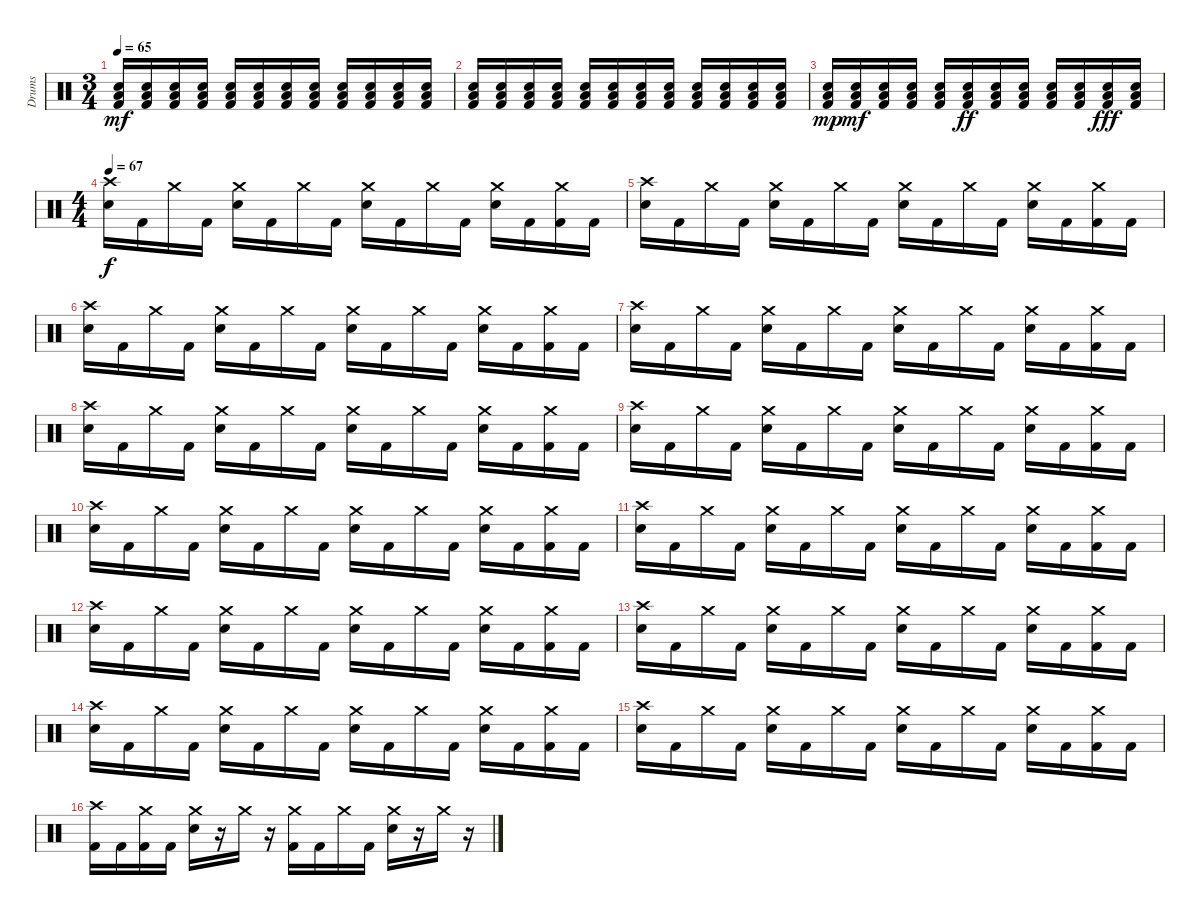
\track ("Drums" "Drums") {instrument percussion}
\staff {score}
\articulation defaults
\ts (3 4)
\tempo 65
\clef neutral
\ks c
("Kick (hit) 2" "Electric Snare (hit)" "Low Tom (hit)").16{dy mf} ("Kick (hit) 2" "Electric Snare (hit)" "Low Tom (hit)").16 ("Kick (hit) 2" "Electric Snare (hit)" "Low Tom (hit)").16 ("Kick (hit) 2" "Electric Snare (hit)" "Low Tom (hit)").16 ("Kick (hit) 2" "Electric Snare (hit)" "Low Tom (hit)").16 ("Kick (hit) 2" "Electric Snare (hit)" "Low Tom (hit)").16 ("Kick (hit) 2" "Electric Snare (hit)" "Low Tom (hit)").16 ("Kick (hit) 2" "Electric Snare (hit)" "Low Tom (hit)").16 ("Kick (hit) 2" "Electric Snare (hit)" "Low Tom (hit)").16 ("Kick (hit) 2" "Electric Snare (hit)" "Low Tom (hit)").16 ("Kick (hit) 2" "Electric Snare (hit)" "Low Tom (hit)").16 ("Kick (hit) 2" "Electric Snare (hit)" "Low Tom (hit)").16 |
("Kick (hit) 2" "Electric Snare (hit)" "Low Tom (hit)").16 ("Kick (hit) 2" "Electric Snare (hit)" "Low Tom (hit)").16 ("Kick (hit) 2" "Electric Snare (hit)" "Low Tom (hit)").16 ("Kick (hit) 2" "Electric Snare (hit)" "Low Tom (hit)").16 ("Kick (hit) 2" "Electric Snare (hit)" "Low Tom (hit)").16 ("Kick (hit) 2" "Electric Snare (hit)" "Low Tom (hit)").16 ("Kick (hit) 2" "Electric Snare (hit)" "Low Tom (hit)").16 ("Kick (hit) 2" "Electric Snare (hit)" "Low Tom (hit)").16 ("Kick (hit) 2" "Electric Snare (hit)" "Low Tom (hit)").16 ("Kick (hit) 2" "Electric Snare (hit)" "Low Tom (hit)").16 ("Kick (hit) 2" "Electric Snare (hit)" "Low Tom (hit)").16 ("Kick (hit) 2" "Electric Snare (hit)" "Low Tom (hit)").16 |
("Kick (hit) 2" "Electric Snare (hit)" "Low Tom (hit)").16{dy mp} ("Kick (hit) 2" "Electric Snare (hit)" "Low Tom (hit)").16{dy mf} ("Kick (hit) 2" "Electric Snare (hit)" "Low Tom (hit)").16 ("Kick (hit) 2" "Electric Snare (hit)" "Low Tom (hit)").16 ("Kick (hit) 2" "Electric Snare (hit)" "Low Tom (hit)").16 ("Kick (hit) 2" "Electric Snare (hit)" "Low Tom (hit)").16{dy ff} ("Kick (hit) 2" "Electric Snare (hit)" "Low Tom (hit)").16 ("Kick (hit) 2" "Electric Snare (hit)" "Low Tom (hit)").16 ("Kick (hit) 2" "Electric Snare (hit)" "Low Tom (hit)").16 ("Kick (hit) 2" "Electric Snare (hit)" "Low Tom (hit)").16 ("Kick (hit) 2" "Electric Snare (hit)" "Low Tom (hit)").16{dy fff} ("Kick (hit) 2" "Electric Snare (hit)" "Low Tom (hit)").16 |
\ts (4 4)
\tempo 67
("Crash high (hit)" "Electric Snare (hit)").16{dy f} "Kick (hit) 2".16 "Crash medium (hit)".16 "Kick (hit) 2".16 ("Crash medium (hit)" "Electric Snare (hit)").16 "Kick (hit) 2".16 "Crash medium (hit)".16 "Kick (hit) 2".16 ("Crash medium (hit)" "Electric Snare (hit)").16 "Kick (hit) 2".16 "Crash medium (hit)".16 "Kick (hit) 2".16 ("Crash medium (hit)" "Electric Snare (hit)").16 "Kick (hit) 2".16 ("Crash medium (hit)" "Kick (hit) 2").16 "Kick (hit) 2".16 |
("Crash high (hit)" "Electric Snare (hit)").16 "Kick (hit) 2".16 "Crash medium (hit)".16 "Kick (hit) 2".16 ("Crash medium (hit)" "Electric Snare (hit)").16 "Kick (hit) 2".16 "Crash medium (hit)".16 "Kick (hit) 2".16 ("Crash medium (hit)" "Electric Snare (hit)").16 "Kick (hit) 2".16 "Crash medium (hit)".16 "Kick (hit) 2".16 ("Crash medium (hit)" "Electric Snare (hit)").16 "Kick (hit) 2".16 ("Crash medium (hit)" "Kick (hit) 2").16 "Kick (hit) 2".16 |
("Crash high (hit)" "Electric Snare (hit)").16 "Kick (hit) 2".16 "Crash medium (hit)".16 "Kick (hit) 2".16 ("Crash medium (hit)" "Electric Snare (hit)").16 "Kick (hit) 2".16 "Crash medium (hit)".16 "Kick (hit) 2".16 ("Crash medium (hit)" "Electric Snare (hit)").16 "Kick (hit) 2".16 "Crash medium (hit)".16 "Kick (hit) 2".16 ("Crash medium (hit)" "Electric Snare (hit)").16 "Kick (hit) 2".16 ("Crash medium (hit)" "Kick (hit) 2").16 "Kick (hit) 2".16 |
("Crash high (hit)" "Electric Snare (hit)").16 "Kick (hit) 2".16 "Crash medium (hit)".16 "Kick (hit) 2".16 ("Crash medium (hit)" "Electric Snare (hit)").16 "Kick (hit) 2".16 "Crash medium (hit)".16 "Kick (hit) 2".16 ("Crash medium (hit)" "Electric Snare (hit)").16 "Kick (hit) 2".16 "Crash medium (hit)".16 "Kick (hit) 2".16 ("Crash medium (hit)" "Electric Snare (hit)").16 "Kick (hit) 2".16 ("Crash medium (hit)" "Kick (hit) 2").16 "Kick (hit) 2".16 |
("Crash high (hit)" "Electric Snare (hit)").16 "Kick (hit) 2".16 "Crash medium (hit)".16 "Kick (hit) 2".16 ("Crash medium (hit)" "Electric Snare (hit)").16 "Kick (hit) 2".16 "Crash medium (hit)".16 "Kick (hit) 2".16 ("Crash medium (hit)" "Electric Snare (hit)").16 "Kick (hit) 2".16 "Crash medium (hit)".16 "Kick (hit) 2".16 ("Crash medium (hit)" "Electric Snare (hit)").16 "Kick (hit) 2".16 ("Crash medium (hit)" "Kick (hit) 2").16 "Kick (hit) 2".16 |
("Crash high (hit)" "Electric Snare (hit)").16 "Kick (hit) 2".16 "Crash medium (hit)".16 "Kick (hit) 2".16 ("Crash medium (hit)" "Electric Snare (hit)").16 "Kick (hit) 2".16 "Crash medium (hit)".16 "Kick (hit) 2".16 ("Crash medium (hit)" "Electric Snare (hit)").16 "Kick (hit) 2".16 "Crash medium (hit)".16 "Kick (hit) 2".16 ("Crash medium (hit)" "Electric Snare (hit)").16 "Kick (hit) 2".16 ("Crash medium (hit)" "Kick (hit) 2").16 "Kick (hit) 2".16 |
("Crash high (hit)" "Electric Snare (hit)").16 "Kick (hit) 2".16 "Crash medium (hit)".16 "Kick (hit) 2".16 ("Crash medium (hit)" "Electric Snare (hit)").16 "Kick (hit) 2".16 "Crash medium (hit)".16 "Kick (hit) 2".16 ("Crash medium (hit)" "Electric Snare (hit)").16 "Kick (hit) 2".16 "Crash medium (hit)".16 "Kick (hit) 2".16 ("Crash medium (hit)" "Electric Snare (hit)").16 "Kick (hit) 2".16 ("Crash medium (hit)" "Kick (hit) 2").16 "Kick (hit) 2".16 |
("Crash high (hit)" "Electric Snare (hit)").16 "Kick (hit) 2".16 "Crash medium (hit)".16 "Kick (hit) 2".16 ("Crash medium (hit)" "Electric Snare (hit)").16 "Kick (hit) 2".16 "Crash medium (hit)".16 "Kick (hit) 2".16 ("Crash medium (hit)" "Electric Snare (hit)").16 "Kick (hit) 2".16 "Crash medium (hit)".16 "Kick (hit) 2".16 ("Crash medium (hit)" "Electric Snare (hit)").16 "Kick (hit) 2".16 ("Crash medium (hit)" "Kick (hit) 2").16 "Kick (hit) 2".16 |
("Crash high (hit)" "Electric Snare (hit)").16 "Kick (hit) 2".16 "Crash medium (hit)".16 "Kick (hit) 2".16 ("Crash medium (hit)" "Electric Snare (hit)").16 "Kick (hit) 2".16 "Crash medium (hit)".16 "Kick (hit) 2".16 ("Crash medium (hit)" "Electric Snare (hit)").16 "Kick (hit) 2".16 "Crash medium (hit)".16 "Kick (hit) 2".16 ("Crash medium (hit)" "Electric Snare (hit)").16 "Kick (hit) 2".16 ("Crash medium (hit)" "Kick (hit) 2").16 "Kick (hit) 2".16 |
("Crash high (hit)" "Electric Snare (hit)").16 "Kick (hit) 2".16 "Crash medium (hit)".16 "Kick (hit) 2".16 ("Crash medium (hit)" "Electric Snare (hit)").16 "Kick (hit) 2".16 "Crash medium (hit)".16 "Kick (hit) 2".16 ("Crash medium (hit)" "Electric Snare (hit)").16 "Kick (hit) 2".16 "Crash medium (hit)".16 "Kick (hit) 2".16 ("Crash medium (hit)" "Electric Snare (hit)").16 "Kick (hit) 2".16 ("Crash medium (hit)" "Kick (hit) 2").16 "Kick (hit) 2".16 |
("Crash high (hit)" "Electric Snare (hit)").16 "Kick (hit) 2".16 "Crash medium (hit)".16 "Kick (hit) 2".16 ("Crash medium (hit)" "Electric Snare (hit)").16 "Kick (hit) 2".16 "Crash medium (hit)".16 "Kick (hit) 2".16 ("Crash medium (hit)" "Electric Snare (hit)").16 "Kick (hit) 2".16 "Crash medium (hit)".16 "Kick (hit) 2".16 ("Crash medium (hit)" "Electric Snare (hit)").16 "Kick (hit) 2".16 ("Crash medium (hit)" "Kick (hit) 2").16 "Kick (hit) 2".16 |
("Crash high (hit)" "Electric Snare (hit)").16 "Kick (hit) 2".16 "Crash medium (hit)".16 "Kick (hit) 2".16 ("Crash medium (hit)" "Electric Snare (hit)").16 "Kick (hit) 2".16 "Crash medium (hit)".16 "Kick (hit) 2".16 ("Crash medium (hit)" "Electric Snare (hit)").16 "Kick (hit) 2".16 "Crash medium (hit)".16 "Kick (hit) 2".16 ("Crash medium (hit)" "Electric Snare (hit)").16 "Kick (hit) 2".16 ("Crash medium (hit)" "Kick (hit) 2").16 "Kick (hit) 2".16 |
("Crash high (hit)" "Kick (hit) 2").16 "Kick (hit) 2".16 ("Crash medium (hit)" "Kick (hit) 2").16 "Kick (hit) 2".16 ("Crash medium (hit)" "Electric Snare (hit)").16 r.16 "Crash medium (hit)".16 r.16 ("Crash medium (hit)" "Kick (hit) 2").16 "Kick (hit) 2".16 "Crash medium (hit)".16 "Kick (hit) 2".16 ("Crash medium (hit)" "Electric Snare (hit)").16 r.16 "Crash medium (hit)".16 r.16
